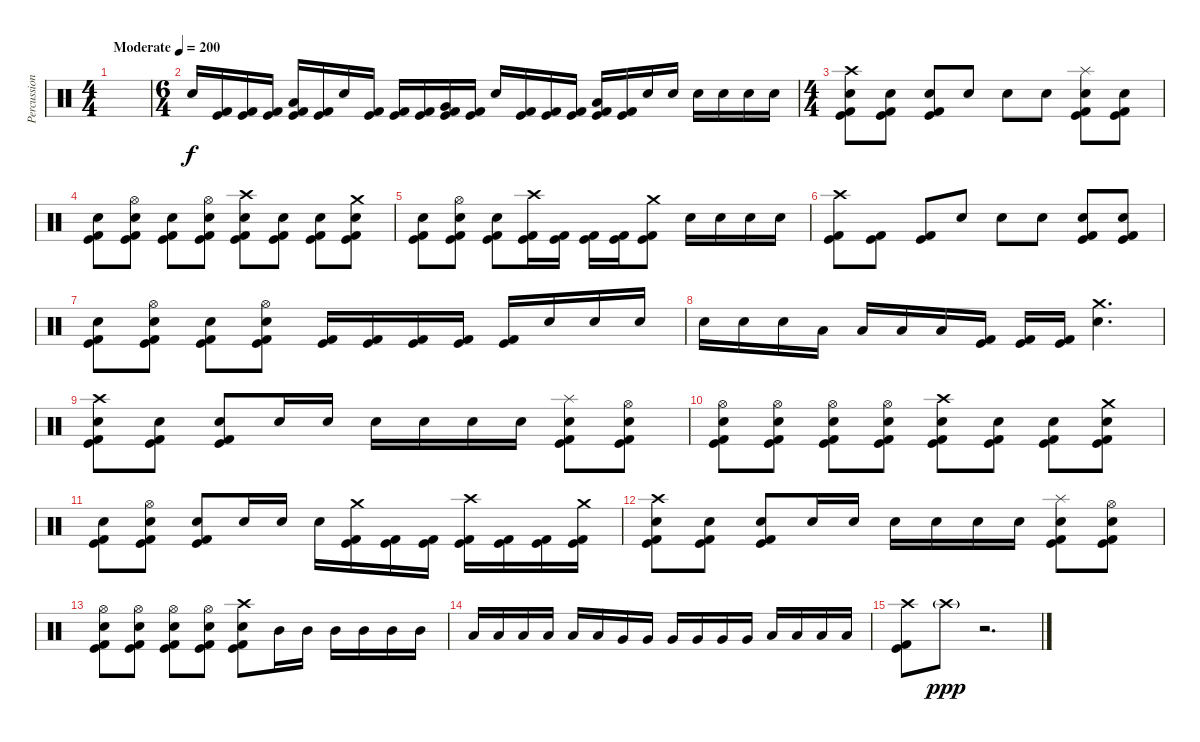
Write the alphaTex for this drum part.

\track ("Percussions" "Percussion") {instrument percussion}
\staff {score}
\articulation defaults
\ts (4 4)
\tempo (200 "Moderate")
\clef neutral
\ks c
|
\ts (6 4)
"Electric Snare (hit)".16 ("Kick (hit)" "Kick (hit) 2").16 ("Kick (hit)" "Kick (hit) 2").16 ("Kick (hit)" "Kick (hit) 2").16 ("Low Tom (hit)" "Kick (hit)" "Kick (hit) 2").16 ("Kick (hit)" "Kick (hit) 2").16 "Electric Snare (hit)".16 ("Kick (hit)" "Kick (hit) 2").16 ("Kick (hit)" "Kick (hit) 2").16 ("Kick (hit)" "Kick (hit) 2").16 ("Very Low Tom (hit)" "Kick (hit)" "Kick (hit) 2").16 ("Kick (hit)" "Kick (hit) 2").16 "Electric Snare (hit)".16 ("Kick (hit)" "Kick (hit) 2").16 ("Kick (hit)" "Kick (hit) 2").16 ("Kick (hit)" "Kick (hit) 2").16 ("Low Floor Tom (hit)" "Kick (hit)" "Kick (hit) 2").16 ("Kick (hit)" "Kick (hit) 2").16 "Electric Snare (hit)".16 "Electric Snare (hit)".16 "Electric Snare (hit)".16 "Electric Snare (hit)".16 "Electric Snare (hit)".16 "Electric Snare (hit)".16 |
\ts (4 4)
("Crash high (hit)" "Electric Snare (hit)" "Kick (hit)" "Kick (hit) 2").8 ("Electric Snare (hit)" "Kick (hit)" "Kick (hit) 2").8 ("Electric Snare (hit)" "Kick (hit)" "Kick (hit) 2").8 "Electric Snare (hit)".8 "Electric Snare (hit)".8 "Electric Snare (hit)".8 ("Splash (hit)" "Electric Snare (hit)" "Kick (hit)" "Kick (hit) 2").8 ("Electric Snare (hit)" "Kick (hit)" "Kick (hit) 2").8 |
("Electric Snare (hit)" "Kick (hit)" "Kick (hit) 2").8 ("Hi-Hat (open)" "Electric Snare (hit)" "Kick (hit)" "Kick (hit) 2").8 ("Electric Snare (hit)" "Kick (hit)" "Kick (hit) 2").8 ("Hi-Hat (open)" "Electric Snare (hit)" "Kick (hit)" "Kick (hit) 2").8 ("Crash high (hit)" "Electric Snare (hit)" "Kick (hit)" "Kick (hit) 2").8 ("Electric Snare (hit)" "Kick (hit)" "Kick (hit) 2").8 ("Electric Snare (hit)" "Kick (hit)" "Kick (hit) 2").8 ("Crash medium (hit)" "Electric Snare (hit)" "Kick (hit)" "Kick (hit) 2").8 |
("Electric Snare (hit)" "Kick (hit)" "Kick (hit) 2").8 ("Hi-Hat (open)" "Electric Snare (hit)" "Kick (hit)" "Kick (hit) 2").8 ("Electric Snare (hit)" "Kick (hit)" "Kick (hit) 2").8 ("Crash high (hit)" "Kick (hit)" "Kick (hit) 2").16 ("Kick (hit)" "Kick (hit) 2").16 ("Kick (hit)" "Kick (hit) 2").16 ("Kick (hit)" "Kick (hit) 2").16 ("Crash medium (hit)" "Kick (hit)" "Kick (hit) 2").8 "Electric Snare (hit)".16 "Electric Snare (hit)".16 "Electric Snare (hit)".16 "Electric Snare (hit)".16 |
("Crash high (hit)" "Kick (hit)" "Kick (hit) 2").8 ("Kick (hit)" "Kick (hit) 2").8 ("Kick (hit)" "Kick (hit) 2").8 "Electric Snare (hit)".8 "Electric Snare (hit)".8 "Electric Snare (hit)".8 ("Electric Snare (hit)" "Kick (hit)" "Kick (hit) 2").8 ("Electric Snare (hit)" "Kick (hit)" "Kick (hit) 2").8 |
("Electric Snare (hit)" "Kick (hit)" "Kick (hit) 2").8 ("Hi-Hat (open)" "Electric Snare (hit)" "Kick (hit)" "Kick (hit) 2").8 ("Electric Snare (hit)" "Kick (hit)" "Kick (hit) 2").8 ("Hi-Hat (open)" "Electric Snare (hit)" "Kick (hit)" "Kick (hit) 2").8 ("Kick (hit)" "Kick (hit) 2").16 ("Kick (hit)" "Kick (hit) 2").16 ("Kick (hit)" "Kick (hit) 2").16 ("Kick (hit)" "Kick (hit) 2").16 ("Kick (hit)" "Kick (hit) 2").16 "Electric Snare (hit)".16 "Electric Snare (hit)".16 "Electric Snare (hit)".16 |
"Electric Snare (hit)".16 "Electric Snare (hit)".16 "Electric Snare (hit)".16 "Low Floor Tom (hit)".16 "Low Floor Tom (hit)".16 "Low Floor Tom (hit)".16 "Low Floor Tom (hit)".16 ("Kick (hit)" "Kick (hit) 2").16 ("Kick (hit)" "Kick (hit) 2").16 ("Kick (hit)" "Kick (hit) 2").16 ("Crash medium (hit)" "Electric Snare (hit)").4{d} |
("Crash high (hit)" "Electric Snare (hit)" "Kick (hit)" "Kick (hit) 2").8 ("Electric Snare (hit)" "Kick (hit)" "Kick (hit) 2").8 ("Electric Snare (hit)" "Kick (hit)" "Kick (hit) 2").8 "Electric Snare (hit)".16 "Electric Snare (hit)".16 "Electric Snare (hit)".16 "Electric Snare (hit)".16 "Electric Snare (hit)".16 "Electric Snare (hit)".16 ("Splash (hit)" "Electric Snare (hit)" "Kick (hit)" "Kick (hit) 2").8 ("Hi-Hat (open)" "Electric Snare (hit)" "Kick (hit)" "Kick (hit) 2").8 |
("Hi-Hat (open)" "Electric Snare (hit)" "Kick (hit)" "Kick (hit) 2").8 ("Hi-Hat (open)" "Electric Snare (hit)" "Kick (hit)" "Kick (hit) 2").8 ("Hi-Hat (open)" "Electric Snare (hit)" "Kick (hit)" "Kick (hit) 2").8 ("Hi-Hat (open)" "Electric Snare (hit)" "Kick (hit)" "Kick (hit) 2").8 ("Crash high (hit)" "Electric Snare (hit)" "Kick (hit)" "Kick (hit) 2").8 ("Electric Snare (hit)" "Kick (hit)" "Kick (hit) 2").8 ("Electric Snare (hit)" "Kick (hit)" "Kick (hit) 2").8 ("Crash medium (hit)" "Electric Snare (hit)" "Kick (hit)" "Kick (hit) 2").8 |
("Electric Snare (hit)" "Kick (hit)" "Kick (hit) 2").8 ("Hi-Hat (open)" "Electric Snare (hit)" "Kick (hit)" "Kick (hit) 2").8 ("Electric Snare (hit)" "Kick (hit)" "Kick (hit) 2").8 "Electric Snare (hit)".16 "Electric Snare (hit)".16 "Electric Snare (hit)".16 ("Crash medium (hit)" "Kick (hit)" "Kick (hit) 2").16 ("Kick (hit)" "Kick (hit) 2").16 ("Kick (hit)" "Kick (hit) 2").16 ("Crash high (hit)" "Kick (hit)" "Kick (hit) 2").16 ("Kick (hit)" "Kick (hit) 2").16 ("Kick (hit)" "Kick (hit) 2").16 ("Crash medium (hit)" "Kick (hit)" "Kick (hit) 2").16 |
("Crash high (hit)" "Electric Snare (hit)" "Kick (hit)" "Kick (hit) 2").8 ("Electric Snare (hit)" "Kick (hit)" "Kick (hit) 2").8 ("Electric Snare (hit)" "Kick (hit)" "Kick (hit) 2").8 "Electric Snare (hit)".16 "Electric Snare (hit)".16 "Electric Snare (hit)".16 "Electric Snare (hit)".16 "Electric Snare (hit)".16 "Electric Snare (hit)".16 ("Splash (hit)" "Electric Snare (hit)" "Kick (hit)" "Kick (hit) 2").8 ("Hi-Hat (open)" "Electric Snare (hit)" "Kick (hit)" "Kick (hit) 2").8 |
("Hi-Hat (open)" "Electric Snare (hit)" "Kick (hit)" "Kick (hit) 2").8 ("Hi-Hat (open)" "Electric Snare (hit)" "Kick (hit)" "Kick (hit) 2").8 ("Hi-Hat (open)" "Electric Snare (hit)" "Kick (hit)" "Kick (hit) 2").8 ("Hi-Hat (open)" "Electric Snare (hit)" "Kick (hit)" "Kick (hit) 2").8 ("Crash high (hit)" "Electric Snare (hit)" "Kick (hit)" "Kick (hit) 2").8 "Mid Tom (hit)".16 "Mid Tom (hit)".16 "Mid Tom (hit)".16 "Mid Tom (hit)".16 "Mid Tom (hit)".16 "Mid Tom (hit)".16 |
"Low Tom (hit)".16 "Low Tom (hit)".16 "Low Tom (hit)".16 "Low Tom (hit)".16 "Low Tom (hit)".16 "Low Tom (hit)".16 "Very Low Tom (hit)".16 "Very Low Tom (hit)".16 "Very Low Tom (hit)".16 "Very Low Tom (hit)".16 "Very Low Tom (hit)".16 "Very Low Tom (hit)".16 "Low Floor Tom (hit)".16 "Low Floor Tom (hit)".16 "Low Floor Tom (hit)".16 "Low Floor Tom (hit)".16 |
("Crash high (hit)" "Kick (hit)" "Kick (hit) 2").8 "Crash high (hit)"{g}.8{dy ppp} r.2{d}
